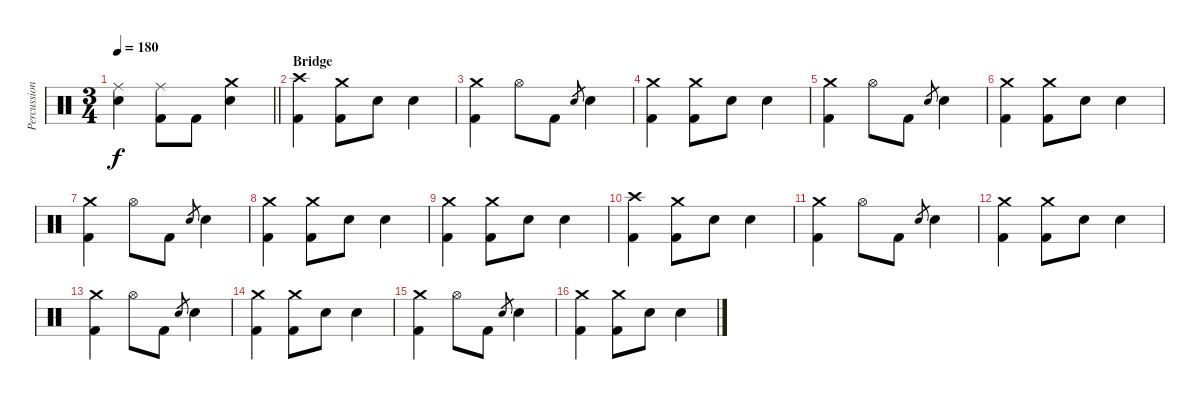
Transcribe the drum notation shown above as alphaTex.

\track ("Percussion" "Percussion") {instrument percussion}
\staff {score}
\articulation defaults
\ts (3 4)
\tempo 180
\clef neutral
\barLineRight lightlight
\ks c
("Ride (middle)" "Electric Snare (hit)").4{dy f} ("Ride (middle)" "Kick (hit) 2").8 "Kick (hit) 2".8 ("Crash medium (hit)" "Electric Snare (hit)").4 |
\section ("" "Bridge")
("Crash high (hit)" "Kick (hit) 2").4 ("Crash medium (hit)" "Kick (hit) 2").8 "Electric Snare (hit)".8 "Electric Snare (hit)".4 |
("Crash medium (hit)" "Kick (hit) 2").4 "Hi-Hat (open)".8 "Kick (hit) 2".8 "Electric Snare (hit)".8{gr} "Electric Snare (hit)".4 |
("Crash medium (hit)" "Kick (hit) 2").4 ("Crash medium (hit)" "Kick (hit) 2").8 "Electric Snare (hit)".8 "Electric Snare (hit)".4 |
("Crash medium (hit)" "Kick (hit) 2").4 "Hi-Hat (open)".8 "Kick (hit) 2".8 "Electric Snare (hit)".8{gr} "Electric Snare (hit)".4 |
("Crash medium (hit)" "Kick (hit) 2").4 ("Crash medium (hit)" "Kick (hit) 2").8 "Electric Snare (hit)".8 "Electric Snare (hit)".4 |
("Crash medium (hit)" "Kick (hit) 2").4 "Hi-Hat (open)".8 "Kick (hit) 2".8 "Electric Snare (hit)".8{gr} "Electric Snare (hit)".4 |
("Crash medium (hit)" "Kick (hit) 2").4 ("Crash medium (hit)" "Kick (hit) 2").8 "Electric Snare (hit)".8 "Electric Snare (hit)".4 |
("Crash medium (hit)" "Kick (hit) 2").4 ("Crash medium (hit)" "Kick (hit) 2").8 "Electric Snare (hit)".8 "Electric Snare (hit)".4 |
("Crash high (hit)" "Kick (hit) 2").4 ("Crash medium (hit)" "Kick (hit) 2").8 "Electric Snare (hit)".8 "Electric Snare (hit)".4 |
("Crash medium (hit)" "Kick (hit) 2").4 "Hi-Hat (open)".8 "Kick (hit) 2".8 "Electric Snare (hit)".8{gr} "Electric Snare (hit)".4 |
("Crash medium (hit)" "Kick (hit) 2").4 ("Crash medium (hit)" "Kick (hit) 2").8 "Electric Snare (hit)".8 "Electric Snare (hit)".4 |
("Crash medium (hit)" "Kick (hit) 2").4 "Hi-Hat (open)".8 "Kick (hit) 2".8 "Electric Snare (hit)".8{gr} "Electric Snare (hit)".4 |
("Crash medium (hit)" "Kick (hit) 2").4 ("Crash medium (hit)" "Kick (hit) 2").8 "Electric Snare (hit)".8 "Electric Snare (hit)".4 |
("Crash medium (hit)" "Kick (hit) 2").4 "Hi-Hat (open)".8 "Kick (hit) 2".8 "Electric Snare (hit)".8{gr} "Electric Snare (hit)".4 |
("Crash medium (hit)" "Kick (hit) 2").4 ("Crash medium (hit)" "Kick (hit) 2").8 "Electric Snare (hit)".8 "Electric Snare (hit)".4
